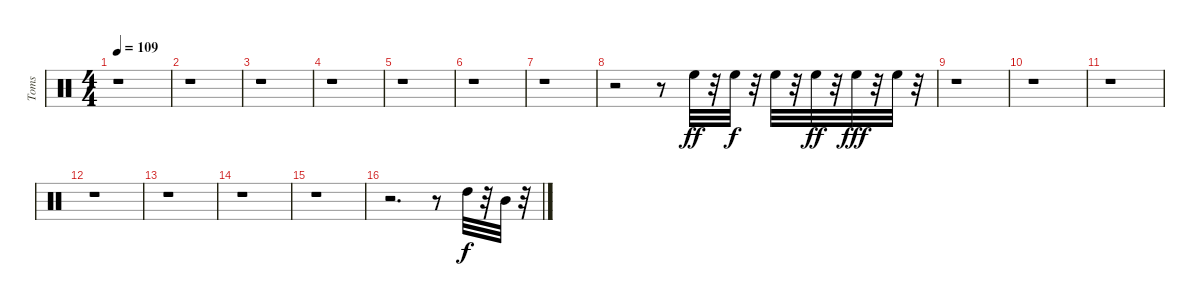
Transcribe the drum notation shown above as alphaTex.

\track ("Toms" "Toms") {instrument percussion}
\staff {score}
\articulation defaults
\ts (4 4)
\tempo 109
\clef neutral
\ks c
r.1{dy fff} |
r.1 |
r.1 |
r.1 |
r.1 |
r.1 |
r.1 |
r.2 r.8 "High Floor Tom (hit)".32{dy ff} r.32 "High Floor Tom (hit)".32{dy f} r.32 "High Floor Tom (hit)".32 r.32 "High Floor Tom (hit)".32{dy ff} r.32 "High Floor Tom (hit)".32{dy fff} r.32 "High Floor Tom (hit)".32 r.32 |
r.1 |
r.1 |
r.1 |
r.1 |
r.1 |
r.1 |
r.1 |
r.2{d} r.8 "High Tom (hit)".32{dy f} r.32 "Mid Tom (hit)".32 r.32
